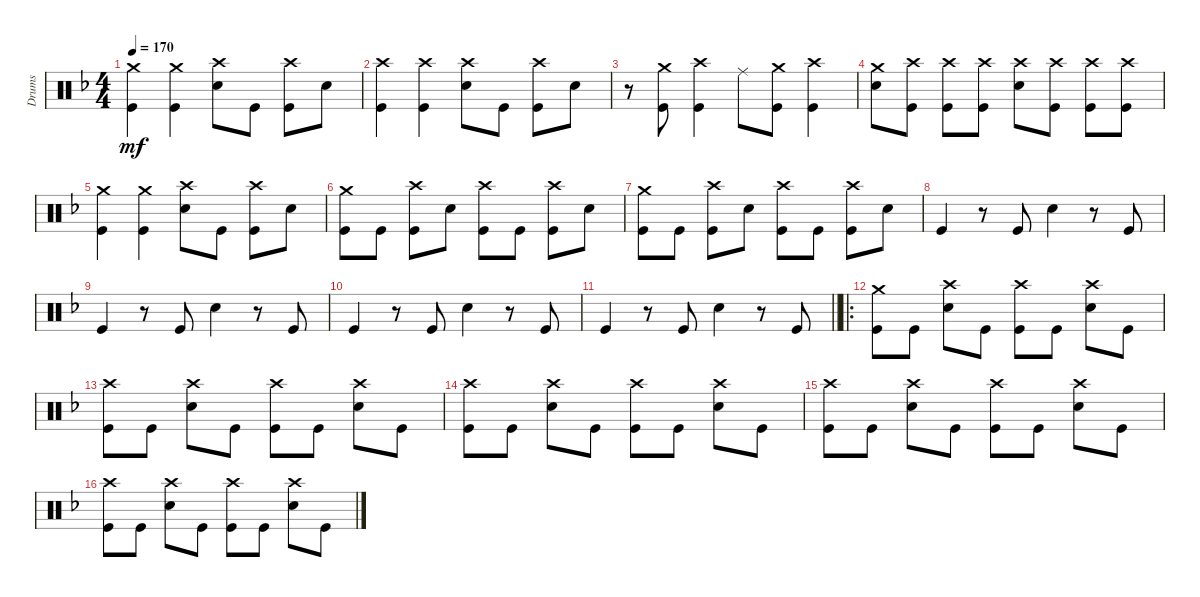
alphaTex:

\track ("Drums" "Drums") {instrument percussion}
\staff {score}
\articulation defaults
\ts (4 4)
\tempo 170
\clef neutral
\ks f
("Kick (hit)" "Crash medium (hit)").4{dy mf} ("Kick (hit)" "Crash medium (hit)").4 ("Snare (hit) 2" "Crash high (hit)").8 "Kick (hit)".8 ("Kick (hit)" "Crash high (hit)").8 "Snare (hit) 2".8 |
("Kick (hit)" "Crash high (hit)").4 ("Kick (hit)" "Crash high (hit)").4 ("Snare (hit) 2" "Crash high (hit)").8 "Kick (hit)".8 ("Kick (hit)" "Crash high (hit)").8 "Snare (hit) 2".8 |
r.8 ("Kick (hit)" "Crash medium (hit)").8 ("Kick (hit)" "Crash high (hit)").4 "Ride (middle)".8 ("Kick (hit)" "Crash medium (hit)").8 ("Kick (hit)" "Crash high (hit)").4 |
("Snare (hit) 2" "Crash medium (hit)").8 ("Kick (hit)" "Crash high (hit)").8 ("Kick (hit)" "Crash high (hit)").8 ("Kick (hit)" "Crash high (hit)").8 ("Snare (hit) 2" "Crash high (hit)").8 ("Kick (hit)" "Crash high (hit)").8 ("Kick (hit)" "Crash high (hit)").8 ("Kick (hit)" "Crash high (hit)").8 |
("Kick (hit)" "Crash medium (hit)").4 ("Kick (hit)" "Crash medium (hit)").4 ("Snare (hit) 2" "Crash high (hit)").8 "Kick (hit)".8 ("Kick (hit)" "Crash high (hit)").8 "Snare (hit) 2".8 |
("Crash medium (hit)" "Kick (hit)").8 "Kick (hit)".8 ("Kick (hit)" "Crash high (hit)").8 "Snare (hit) 2".8 ("Kick (hit)" "Crash high (hit)").8 "Kick (hit)".8 ("Kick (hit)" "Crash high (hit)").8 "Snare (hit) 2".8 |
("Crash medium (hit)" "Kick (hit)").8 "Kick (hit)".8 ("Kick (hit)" "Crash high (hit)").8 "Snare (hit) 2".8 ("Kick (hit)" "Crash high (hit)").8 "Kick (hit)".8 ("Kick (hit)" "Crash high (hit)").8 "Snare (hit) 2".8 |
"Kick (hit)".4 r.8 "Kick (hit)".8 "Snare (hit) 2".4 r.8 "Kick (hit)".8 |
"Kick (hit)".4 r.8 "Kick (hit)".8 "Snare (hit) 2".4 r.8 "Kick (hit)".8 |
"Kick (hit)".4 r.8 "Kick (hit)".8 "Snare (hit) 2".4 r.8 "Kick (hit)".8 |
\barLineRight lightlight "Kick (hit)".4
r.8 "Kick (hit)".8 "Snare (hit) 2".4 r.8 "Kick (hit)".8 |
\ro
("Kick (hit)" "Crash medium (hit)").8 "Kick (hit)".8 ("Snare (hit) 2" "Crash high (hit)").8 "Kick (hit)".8 ("Kick (hit)" "Crash high (hit)").8 "Kick (hit)".8 ("Snare (hit) 2" "Crash high (hit)").8 "Kick (hit)".8 |
("Kick (hit)" "Crash high (hit)").8 "Kick (hit)".8 ("Snare (hit) 2" "Crash high (hit)").8 "Kick (hit)".8 ("Kick (hit)" "Crash high (hit)").8 "Kick (hit)".8 ("Snare (hit) 2" "Crash high (hit)").8 "Kick (hit)".8 |
("Kick (hit)" "Crash high (hit)").8 "Kick (hit)".8 ("Snare (hit) 2" "Crash high (hit)").8 "Kick (hit)".8 ("Kick (hit)" "Crash high (hit)").8 "Kick (hit)".8 ("Snare (hit) 2" "Crash high (hit)").8 "Kick (hit)".8 |
("Kick (hit)" "Crash high (hit)").8 "Kick (hit)".8 ("Snare (hit) 2" "Crash high (hit)").8 "Kick (hit)".8 ("Kick (hit)" "Crash high (hit)").8 "Kick (hit)".8 ("Snare (hit) 2" "Crash high (hit)").8 "Kick (hit)".8 |
("Kick (hit)" "Crash high (hit)").8 "Kick (hit)".8 ("Snare (hit) 2" "Crash high (hit)").8 "Kick (hit)".8 ("Kick (hit)" "Crash high (hit)").8 "Kick (hit)".8 ("Snare (hit) 2" "Crash high (hit)").8 "Kick (hit)".8
